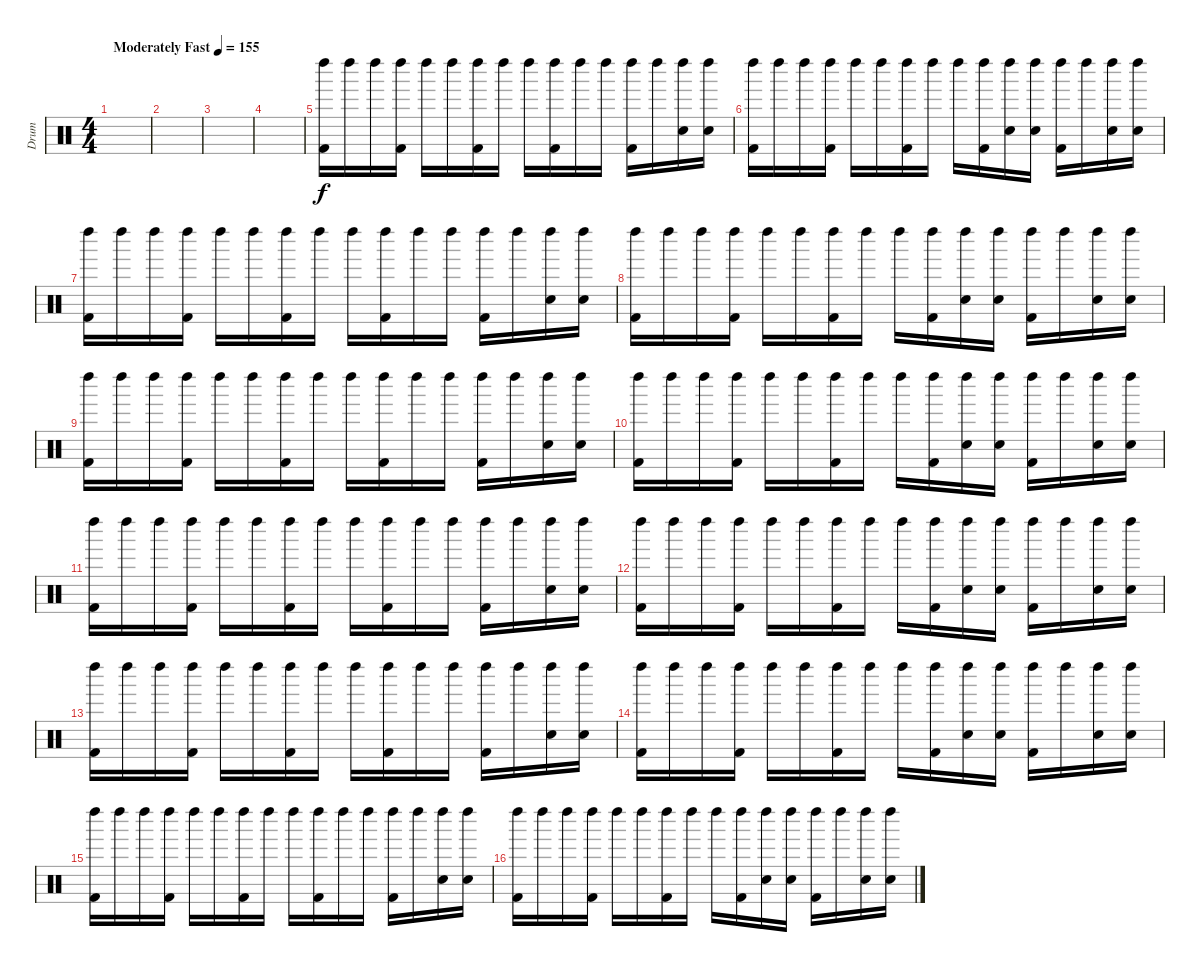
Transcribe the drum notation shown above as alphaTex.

\track ("Drum" "Drum") {instrument percussion}
\staff {score}
\articulation defaults
\ts (4 4)
\tempo (155 "Moderately Fast")
\clef neutral
\ks c
|
|
|
|
("Left Maraca (hit)" "Kick (hit) 2").16 "Left Maraca (hit)".16 "Left Maraca (hit)".16 ("Left Maraca (hit)" "Kick (hit) 2").16 "Left Maraca (hit)".16 "Left Maraca (hit)".16 ("Left Maraca (hit)" "Kick (hit) 2").16 "Left Maraca (hit)".16 "Left Maraca (hit)".16 ("Left Maraca (hit)" "Kick (hit) 2").16 "Left Maraca (hit)".16 "Left Maraca (hit)".16 ("Left Maraca (hit)" "Kick (hit) 2").16 "Left Maraca (hit)".16 ("Left Maraca (hit)" "Snare (hit) 2").16 ("Left Maraca (hit)" "Snare (hit) 2").16 |
("Left Maraca (hit)" "Kick (hit) 2").16 "Left Maraca (hit)".16 "Left Maraca (hit)".16 ("Left Maraca (hit)" "Kick (hit) 2").16 "Left Maraca (hit)".16 "Left Maraca (hit)".16 ("Left Maraca (hit)" "Kick (hit) 2").16 "Left Maraca (hit)".16 "Left Maraca (hit)".16 ("Left Maraca (hit)" "Kick (hit) 2").16 ("Left Maraca (hit)" "Snare (hit) 2").16 ("Left Maraca (hit)" "Snare (hit) 2").16 ("Left Maraca (hit)" "Kick (hit) 2").16 "Left Maraca (hit)".16 ("Left Maraca (hit)" "Snare (hit) 2").16 ("Left Maraca (hit)" "Snare (hit) 2").16 |
("Left Maraca (hit)" "Kick (hit) 2").16 "Left Maraca (hit)".16 "Left Maraca (hit)".16 ("Left Maraca (hit)" "Kick (hit) 2").16 "Left Maraca (hit)".16 "Left Maraca (hit)".16 ("Left Maraca (hit)" "Kick (hit) 2").16 "Left Maraca (hit)".16 "Left Maraca (hit)".16 ("Left Maraca (hit)" "Kick (hit) 2").16 "Left Maraca (hit)".16 "Left Maraca (hit)".16 ("Left Maraca (hit)" "Kick (hit) 2").16 "Left Maraca (hit)".16 ("Left Maraca (hit)" "Snare (hit) 2").16 ("Left Maraca (hit)" "Snare (hit) 2").16 |
("Left Maraca (hit)" "Kick (hit) 2").16 "Left Maraca (hit)".16 "Left Maraca (hit)".16 ("Left Maraca (hit)" "Kick (hit) 2").16 "Left Maraca (hit)".16 "Left Maraca (hit)".16 ("Left Maraca (hit)" "Kick (hit) 2").16 "Left Maraca (hit)".16 "Left Maraca (hit)".16 ("Left Maraca (hit)" "Kick (hit) 2").16 ("Left Maraca (hit)" "Snare (hit) 2").16 ("Left Maraca (hit)" "Snare (hit) 2").16 ("Left Maraca (hit)" "Kick (hit) 2").16 "Left Maraca (hit)".16 ("Left Maraca (hit)" "Snare (hit) 2").16 ("Left Maraca (hit)" "Snare (hit) 2").16 |
("Left Maraca (hit)" "Kick (hit) 2").16 "Left Maraca (hit)".16 "Left Maraca (hit)".16 ("Left Maraca (hit)" "Kick (hit) 2").16 "Left Maraca (hit)".16 "Left Maraca (hit)".16 ("Left Maraca (hit)" "Kick (hit) 2").16 "Left Maraca (hit)".16 "Left Maraca (hit)".16 ("Left Maraca (hit)" "Kick (hit) 2").16 "Left Maraca (hit)".16 "Left Maraca (hit)".16 ("Left Maraca (hit)" "Kick (hit) 2").16 "Left Maraca (hit)".16 ("Left Maraca (hit)" "Snare (hit) 2").16 ("Left Maraca (hit)" "Snare (hit) 2").16 |
("Left Maraca (hit)" "Kick (hit) 2").16 "Left Maraca (hit)".16 "Left Maraca (hit)".16 ("Left Maraca (hit)" "Kick (hit) 2").16 "Left Maraca (hit)".16 "Left Maraca (hit)".16 ("Left Maraca (hit)" "Kick (hit) 2").16 "Left Maraca (hit)".16 "Left Maraca (hit)".16 ("Left Maraca (hit)" "Kick (hit) 2").16 ("Left Maraca (hit)" "Snare (hit) 2").16 ("Left Maraca (hit)" "Snare (hit) 2").16 ("Left Maraca (hit)" "Kick (hit) 2").16 "Left Maraca (hit)".16 ("Left Maraca (hit)" "Snare (hit) 2").16 ("Left Maraca (hit)" "Snare (hit) 2").16 |
("Left Maraca (hit)" "Kick (hit) 2").16 "Left Maraca (hit)".16 "Left Maraca (hit)".16 ("Left Maraca (hit)" "Kick (hit) 2").16 "Left Maraca (hit)".16 "Left Maraca (hit)".16 ("Left Maraca (hit)" "Kick (hit) 2").16 "Left Maraca (hit)".16 "Left Maraca (hit)".16 ("Left Maraca (hit)" "Kick (hit) 2").16 "Left Maraca (hit)".16 "Left Maraca (hit)".16 ("Left Maraca (hit)" "Kick (hit) 2").16 "Left Maraca (hit)".16 ("Left Maraca (hit)" "Snare (hit) 2").16 ("Left Maraca (hit)" "Snare (hit) 2").16 |
("Left Maraca (hit)" "Kick (hit) 2").16 "Left Maraca (hit)".16 "Left Maraca (hit)".16 ("Left Maraca (hit)" "Kick (hit) 2").16 "Left Maraca (hit)".16 "Left Maraca (hit)".16 ("Left Maraca (hit)" "Kick (hit) 2").16 "Left Maraca (hit)".16 "Left Maraca (hit)".16 ("Left Maraca (hit)" "Kick (hit) 2").16 ("Left Maraca (hit)" "Snare (hit) 2").16 ("Left Maraca (hit)" "Snare (hit) 2").16 ("Left Maraca (hit)" "Kick (hit) 2").16 "Left Maraca (hit)".16 ("Left Maraca (hit)" "Snare (hit) 2").16 ("Left Maraca (hit)" "Snare (hit) 2").16 |
("Left Maraca (hit)" "Kick (hit) 2").16 "Left Maraca (hit)".16 "Left Maraca (hit)".16 ("Left Maraca (hit)" "Kick (hit) 2").16 "Left Maraca (hit)".16 "Left Maraca (hit)".16 ("Left Maraca (hit)" "Kick (hit) 2").16 "Left Maraca (hit)".16 "Left Maraca (hit)".16 ("Left Maraca (hit)" "Kick (hit) 2").16 "Left Maraca (hit)".16 "Left Maraca (hit)".16 ("Left Maraca (hit)" "Kick (hit) 2").16 "Left Maraca (hit)".16 ("Left Maraca (hit)" "Snare (hit) 2").16 ("Left Maraca (hit)" "Snare (hit) 2").16 |
("Left Maraca (hit)" "Kick (hit) 2").16 "Left Maraca (hit)".16 "Left Maraca (hit)".16 ("Left Maraca (hit)" "Kick (hit) 2").16 "Left Maraca (hit)".16 "Left Maraca (hit)".16 ("Left Maraca (hit)" "Kick (hit) 2").16 "Left Maraca (hit)".16 "Left Maraca (hit)".16 ("Left Maraca (hit)" "Kick (hit) 2").16 ("Left Maraca (hit)" "Snare (hit) 2").16 ("Left Maraca (hit)" "Snare (hit) 2").16 ("Left Maraca (hit)" "Kick (hit) 2").16 "Left Maraca (hit)".16 ("Left Maraca (hit)" "Snare (hit) 2").16 ("Left Maraca (hit)" "Snare (hit) 2").16 |
("Left Maraca (hit)" "Kick (hit) 2").16 "Left Maraca (hit)".16 "Left Maraca (hit)".16 ("Left Maraca (hit)" "Kick (hit) 2").16 "Left Maraca (hit)".16 "Left Maraca (hit)".16 ("Left Maraca (hit)" "Kick (hit) 2").16 "Left Maraca (hit)".16 "Left Maraca (hit)".16 ("Left Maraca (hit)" "Kick (hit) 2").16 "Left Maraca (hit)".16 "Left Maraca (hit)".16 ("Left Maraca (hit)" "Kick (hit) 2").16 "Left Maraca (hit)".16 ("Left Maraca (hit)" "Snare (hit) 2").16 ("Left Maraca (hit)" "Snare (hit) 2").16 |
("Left Maraca (hit)" "Kick (hit) 2").16 "Left Maraca (hit)".16 "Left Maraca (hit)".16 ("Left Maraca (hit)" "Kick (hit) 2").16 "Left Maraca (hit)".16 "Left Maraca (hit)".16 ("Left Maraca (hit)" "Kick (hit) 2").16 "Left Maraca (hit)".16 "Left Maraca (hit)".16 ("Left Maraca (hit)" "Kick (hit) 2").16 ("Left Maraca (hit)" "Snare (hit) 2").16 ("Left Maraca (hit)" "Snare (hit) 2").16 ("Left Maraca (hit)" "Kick (hit) 2").16 "Left Maraca (hit)".16 ("Left Maraca (hit)" "Snare (hit) 2").16 ("Left Maraca (hit)" "Snare (hit) 2").16
